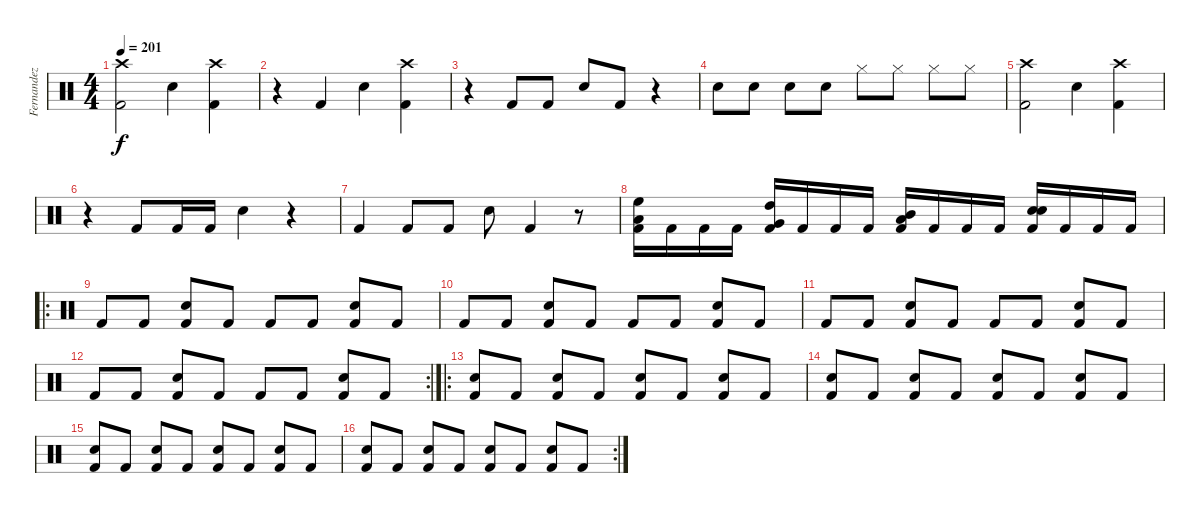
\track ("Fernandez" "Fernandez") {instrument percussion}
\staff {score}
\articulation defaults
\ts (4 4)
\tempo 201
\clef neutral
\ks c
("Crash high (hit)" "Kick (hit) 2").2{dy f} "Snare (hit) 2".4 ("Crash high (hit)" "Kick (hit) 2").4 |
r.4 "Kick (hit) 2".4 "Snare (hit) 2".4 ("Crash high (hit)" "Kick (hit) 2").4 |
r.4 "Kick (hit) 2".8 "Kick (hit) 2".8 "Snare (hit) 2".8 "Kick (hit) 2".8 r.4 |
"Snare (hit) 2".8 "Snare (hit) 2".8 "Snare (hit) 2".8 "Snare (hit) 2".8 "Hi-Hat (closed)".8 "Hi-Hat (closed)".8 "Hi-Hat (closed)".8 "Hi-Hat (closed)".8 |
("Crash high (hit)" "Kick (hit) 2").2 "Snare (hit) 2".4 ("Crash high (hit)" "Kick (hit) 2").4 |
r.4 "Kick (hit) 2".8 "Kick (hit) 2".16 "Kick (hit) 2".16 "Snare (hit) 2".4 r.4 |
"Kick (hit) 2".4 "Kick (hit) 2".8 "Kick (hit) 2".8 "Snare (hit) 2".8 "Kick (hit) 2".4 r.8 |
("Kick (hit) 2" "Low Tom (hit)" "High Floor Tom (hit)").16 "Kick (hit) 2".16 "Kick (hit) 2".16 "Kick (hit) 2".16 ("Kick (hit) 2" "High Tom (hit)" "Very Low Tom (hit)").16 "Kick (hit) 2".16 "Kick (hit) 2".16 "Kick (hit) 2".16 ("Kick (hit) 2" "Low Floor Tom (hit)" "Mid Tom (hit)").16 "Kick (hit) 2".16 "Kick (hit) 2".16 "Kick (hit) 2".16 ("Kick (hit) 2" "Snare (hit) 2" "Snare (hit) 2").16 "Kick (hit) 2".16 "Kick (hit) 2".16 "Kick (hit) 2".16 |
\ro "Kick (hit) 2".8 "Kick (hit) 2".8
("Snare (hit) 2" "Kick (hit) 2").8 "Kick (hit) 2".8 "Kick (hit) 2".8 "Kick (hit) 2".8 ("Snare (hit) 2" "Kick (hit) 2").8 "Kick (hit) 2".8 |
"Kick (hit) 2".8 "Kick (hit) 2".8 ("Snare (hit) 2" "Kick (hit) 2").8 "Kick (hit) 2".8 "Kick (hit) 2".8 "Kick (hit) 2".8 ("Snare (hit) 2" "Kick (hit) 2").8 "Kick (hit) 2".8 |
"Kick (hit) 2".8 "Kick (hit) 2".8 ("Snare (hit) 2" "Kick (hit) 2").8 "Kick (hit) 2".8 "Kick (hit) 2".8 "Kick (hit) 2".8 ("Snare (hit) 2" "Kick (hit) 2").8 "Kick (hit) 2".8 |
\rc 2 "Kick (hit) 2".8 "Kick (hit) 2".8
("Snare (hit) 2" "Kick (hit) 2").8 "Kick (hit) 2".8 "Kick (hit) 2".8 "Kick (hit) 2".8 ("Snare (hit) 2" "Kick (hit) 2").8 "Kick (hit) 2".8 |
\ro
("Snare (hit) 2" "Kick (hit) 2").8 "Kick (hit) 2".8 ("Snare (hit) 2" "Kick (hit) 2").8 "Kick (hit) 2".8 ("Snare (hit) 2" "Kick (hit) 2").8 "Kick (hit) 2".8 ("Snare (hit) 2" "Kick (hit) 2").8 "Kick (hit) 2".8 |
("Snare (hit) 2" "Kick (hit) 2").8 "Kick (hit) 2".8 ("Snare (hit) 2" "Kick (hit) 2").8 "Kick (hit) 2".8 ("Snare (hit) 2" "Kick (hit) 2").8 "Kick (hit) 2".8 ("Snare (hit) 2" "Kick (hit) 2").8 "Kick (hit) 2".8 |
("Snare (hit) 2" "Kick (hit) 2").8 "Kick (hit) 2".8 ("Snare (hit) 2" "Kick (hit) 2").8 "Kick (hit) 2".8 ("Snare (hit) 2" "Kick (hit) 2").8 "Kick (hit) 2".8 ("Snare (hit) 2" "Kick (hit) 2").8 "Kick (hit) 2".8 |
\rc 2
("Snare (hit) 2" "Kick (hit) 2").8 "Kick (hit) 2".8 ("Snare (hit) 2" "Kick (hit) 2").8 "Kick (hit) 2".8 ("Snare (hit) 2" "Kick (hit) 2").8 "Kick (hit) 2".8 ("Snare (hit) 2" "Kick (hit) 2").8 "Kick (hit) 2".8
